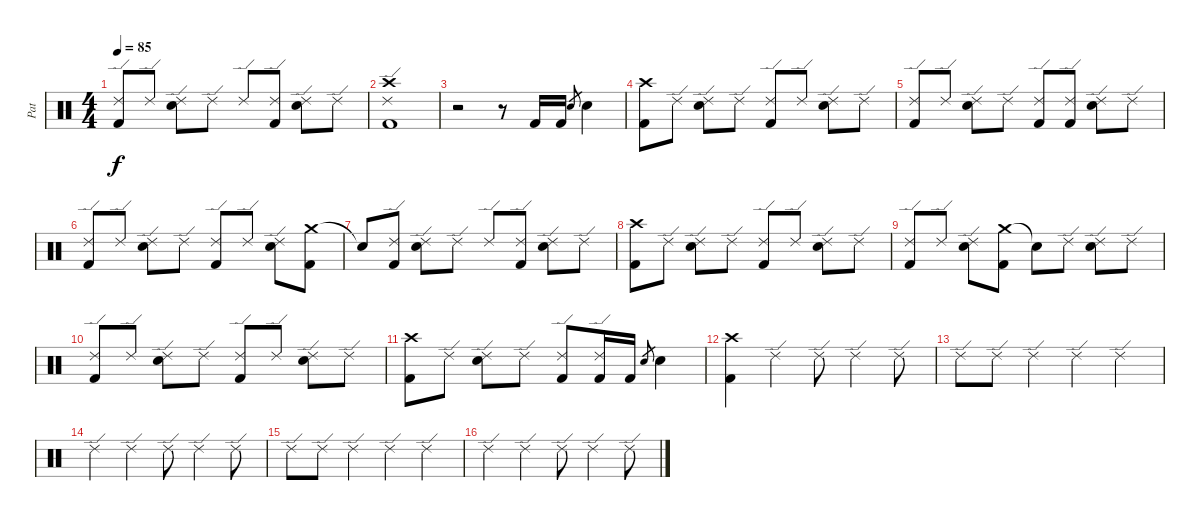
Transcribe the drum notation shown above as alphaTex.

\track ("Pat" "Pat") {instrument percussion}
\staff {score}
\articulation defaults
\ts (4 4)
\tempo 85
\clef neutral
\ks c
("Ride (edge) 2" "Kick (hit) 2").8{dy f} "Ride (edge) 2".8 ("Ride (edge) 2" "Electric Snare (hit)").8 "Ride (edge) 2".8 "Ride (edge) 2".8 ("Ride (edge) 2" "Kick (hit) 2").8 ("Ride (edge) 2" "Electric Snare (hit)").8 "Ride (edge) 2".8 |
("Crash high (hit)" "Ride (edge) 2" "Kick (hit) 2").1 |
r.2 r.8 "Kick (hit) 2".16 "Kick (hit) 2".16 "Electric Snare (hit)".8{gr} "Electric Snare (hit)".4 |
("Crash high (hit)" "Kick (hit) 2").8 "Ride (edge) 2".8 ("Ride (edge) 2" "Electric Snare (hit)").8 "Ride (edge) 2".8 ("Ride (edge) 2" "Kick (hit) 2").8 "Ride (edge) 2".8 ("Ride (edge) 2" "Electric Snare (hit)").8 "Ride (edge) 2".8 |
("Ride (edge) 2" "Kick (hit) 2").8 "Ride (edge) 2".8 ("Ride (edge) 2" "Electric Snare (hit)").8 "Ride (edge) 2".8 ("Ride (edge) 2" "Kick (hit) 2").8 ("Ride (edge) 2" "Kick (hit) 2").8 ("Ride (edge) 2" "Electric Snare (hit)").8 "Ride (edge) 2".8 |
("Ride (edge) 2" "Kick (hit) 2").8 "Ride (edge) 2".8 ("Ride (edge) 2" "Electric Snare (hit)").8 "Ride (edge) 2".8 ("Ride (edge) 2" "Kick (hit) 2").8 "Ride (edge) 2".8 ("Ride (edge) 2" "Electric Snare (hit)").8 ("Crash medium (hit)" "Kick (hit) 2").8 |
"Snare (hit)"{t}.8 ("Ride (edge) 2" "Kick (hit) 2").8 ("Ride (edge) 2" "Electric Snare (hit)").8 "Ride (edge) 2".8 "Ride (edge) 2".8 ("Ride (edge) 2" "Kick (hit) 2").8 ("Ride (edge) 2" "Electric Snare (hit)").8 "Ride (edge) 2".8 |
("Crash high (hit)" "Kick (hit) 2").8 "Ride (edge) 2".8 ("Ride (edge) 2" "Electric Snare (hit)").8 "Ride (edge) 2".8 ("Ride (edge) 2" "Kick (hit) 2").8 "Ride (edge) 2".8 ("Ride (edge) 2" "Electric Snare (hit)").8 "Ride (edge) 2".8 |
("Ride (edge) 2" "Kick (hit) 2").8 "Ride (edge) 2".8 ("Ride (edge) 2" "Electric Snare (hit)").8 ("Crash medium (hit)" "Kick (hit) 2").8 "Snare (hit)"{t}.8 "Ride (edge) 2".8 ("Ride (edge) 2" "Electric Snare (hit)").8 "Ride (edge) 2".8 |
("Ride (edge) 2" "Kick (hit) 2").8 "Ride (edge) 2".8 ("Ride (edge) 2" "Electric Snare (hit)").8 "Ride (edge) 2".8 ("Ride (edge) 2" "Kick (hit) 2").8 "Ride (edge) 2".8 ("Ride (edge) 2" "Electric Snare (hit)").8 "Ride (edge) 2".8 |
("Crash high (hit)" "Kick (hit) 2").8 "Ride (edge) 2".8 ("Ride (edge) 2" "Electric Snare (hit)").8 "Ride (edge) 2".8 ("Ride (edge) 2" "Kick (hit) 2").8 ("Ride (edge) 2" "Kick (hit) 2").16 "Kick (hit) 2".16 "Electric Snare (hit)".8{gr} "Electric Snare (hit)".4 |
("Crash high (hit)" "Kick (hit) 2").4 "Ride (edge) 2".4 "Ride (edge) 2".8 "Ride (edge) 2".4 "Ride (edge) 2".8 |
"Ride (edge) 2".8 "Ride (edge) 2".8 "Ride (edge) 2".4 "Ride (edge) 2".4 "Ride (edge) 2".4 |
"Ride (edge) 2".4 "Ride (edge) 2".4 "Ride (edge) 2".8 "Ride (edge) 2".4 "Ride (edge) 2".8 |
"Ride (edge) 2".8 "Ride (edge) 2".8 "Ride (edge) 2".4 "Ride (edge) 2".4 "Ride (edge) 2".4 |
"Ride (edge) 2".4 "Ride (edge) 2".4 "Ride (edge) 2".8 "Ride (edge) 2".4 "Ride (edge) 2".8
